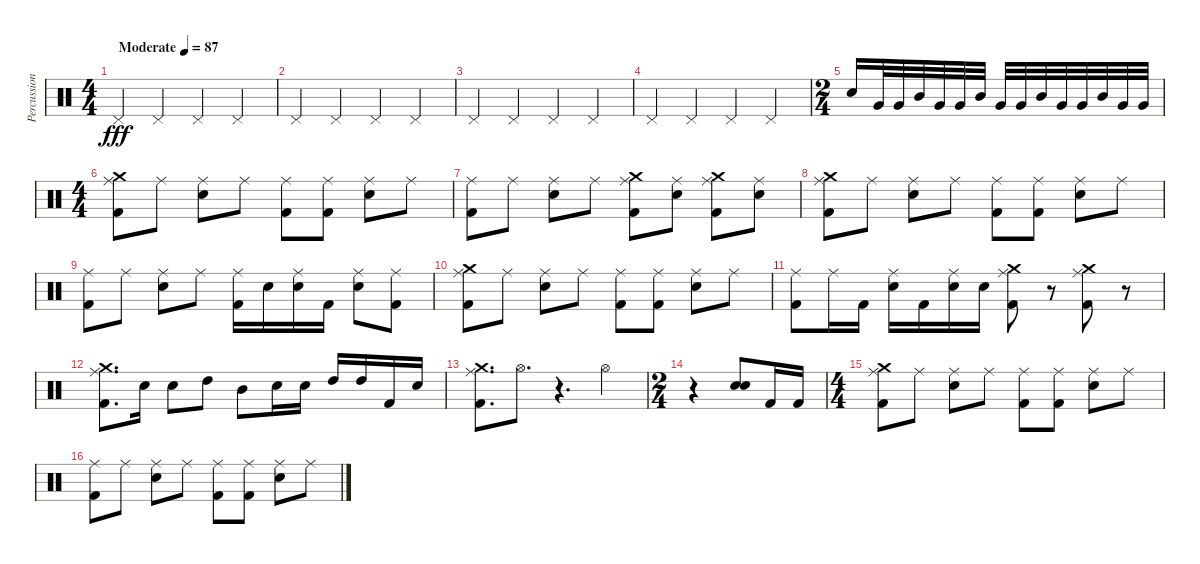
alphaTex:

\track ("Percussion" "Percussion") {instrument percussion}
\staff {score}
\articulation defaults
\ts (4 4)
\tempo (87 "Moderate")
\clef neutral
\ks c "Pedal Hi-Hat (hit)".4{dy fff} "Pedal Hi-Hat (hit)".4 "Pedal Hi-Hat (hit)".4 "Pedal Hi-Hat (hit)".4
|
"Pedal Hi-Hat (hit)".4 "Pedal Hi-Hat (hit)".4 "Pedal Hi-Hat (hit)".4 "Pedal Hi-Hat (hit)".4 |
"Pedal Hi-Hat (hit)".4 "Pedal Hi-Hat (hit)".4 "Pedal Hi-Hat (hit)".4 "Pedal Hi-Hat (hit)".4 |
"Pedal Hi-Hat (hit)".4 "Pedal Hi-Hat (hit)".4 "Pedal Hi-Hat (hit)".4 "Pedal Hi-Hat (hit)".4 |
\ts (2 4)
"Electric Snare (hit)".16 "Very Low Tom (hit)".32 "Very Low Tom (hit)".32 "Mid Tom (hit)".32 "Very Low Tom (hit)".32 "Very Low Tom (hit)".32 "Mid Tom (hit)".32 "Very Low Tom (hit)".32 "Very Low Tom (hit)".32 "Mid Tom (hit)".32 "Very Low Tom (hit)".32 "Very Low Tom (hit)".32 "Mid Tom (hit)".32 "Very Low Tom (hit)".32 "Very Low Tom (hit)".32 |
\ts (4 4)
("Ride (middle)" "Crash medium (hit)" "Kick (hit) 2").8 "Ride (middle)".8 ("Ride (middle)" "Electric Snare (hit)").8 "Ride (middle)".8 ("Ride (middle)" "Kick (hit) 2").8 ("Ride (middle)" "Kick (hit) 2").8 ("Ride (middle)" "Electric Snare (hit)").8 "Ride (middle)".8 |
("Ride (middle)" "Kick (hit) 2").8 "Ride (middle)".8 ("Ride (middle)" "Electric Snare (hit)").8 "Ride (middle)".8 ("Ride (middle)" "Crash medium (hit)" "Kick (hit) 2").8 ("Ride (middle)" "Electric Snare (hit)").8 ("Ride (middle)" "Crash medium (hit)" "Kick (hit) 2").8 ("Ride (middle)" "Electric Snare (hit)").8 |
("Ride (middle)" "Crash medium (hit)" "Kick (hit) 2").8 "Ride (middle)".8 ("Ride (middle)" "Electric Snare (hit)").8 "Ride (middle)".8 ("Ride (middle)" "Kick (hit) 2").8 ("Ride (middle)" "Kick (hit) 2").8 ("Ride (middle)" "Electric Snare (hit)").8 "Ride (middle)".8 |
("Ride (middle)" "Kick (hit) 2").8 "Ride (middle)".8 ("Ride (middle)" "Electric Snare (hit)").8 "Ride (middle)".8 ("Ride (middle)" "Kick (hit) 2").16 "Electric Snare (hit)".16 ("Ride (middle)" "Electric Snare (hit)").16 "Kick (hit) 2".16 ("Ride (middle)" "Electric Snare (hit)").8 ("Ride (middle)" "Kick (hit) 2").8 |
("Ride (middle)" "Crash medium (hit)" "Kick (hit) 2").8 "Ride (middle)".8 ("Ride (middle)" "Electric Snare (hit)").8 "Ride (middle)".8 ("Ride (middle)" "Kick (hit) 2").8 ("Ride (middle)" "Kick (hit) 2").8 ("Ride (middle)" "Electric Snare (hit)").8 "Ride (middle)".8 |
("Ride (middle)" "Kick (hit) 2").8 "Ride (middle)".16 "Kick (hit) 2".16 ("Ride (middle)" "Electric Snare (hit)").16 "Kick (hit) 2".16 ("Ride (middle)" "Electric Snare (hit)").16 "Electric Snare (hit)".16 ("Ride (middle)" "Crash medium (hit)" "Kick (hit) 2").8 r.8 ("Ride (middle)" "Crash medium (hit)" "Kick (hit) 2").8 r.8 |
("Ride (middle)" "Crash medium (hit)" "Kick (hit) 2").8{d} "Electric Snare (hit)".16 "Electric Snare (hit)".8 "High Tom (hit)".8 "Mid Tom (hit)".8 "Electric Snare (hit)".16 "Electric Snare (hit)".16 "High Tom (hit)".16 "High Tom (hit)".16 "Kick (hit) 2".16 "Electric Snare (hit)".16 |
("Ride (middle)" "Crash medium (hit)" "Kick (hit) 2").8{d} "Hi-Hat (open)".8{d} r.4{d} "Hi-Hat (open)".4 |
\ts (2 4)
r.4 ("Electric Snare (hit)" "Electric Snare (hit)").8 "Kick (hit) 2".16 "Kick (hit) 2".16 |
\ts (4 4)
("Ride (middle)" "Crash medium (hit)" "Kick (hit) 2").8 "Ride (middle)".8 ("Ride (middle)" "Electric Snare (hit)").8 "Ride (middle)".8 ("Ride (middle)" "Kick (hit) 2").8 ("Ride (middle)" "Kick (hit) 2").8 ("Ride (middle)" "Electric Snare (hit)").8 "Ride (middle)".8 |
("Ride (middle)" "Kick (hit) 2").8 "Ride (middle)".8 ("Ride (middle)" "Electric Snare (hit)").8 "Ride (middle)".8 ("Ride (middle)" "Kick (hit) 2").8 ("Ride (middle)" "Kick (hit) 2").8 ("Ride (middle)" "Electric Snare (hit)").8 "Ride (middle)".8
